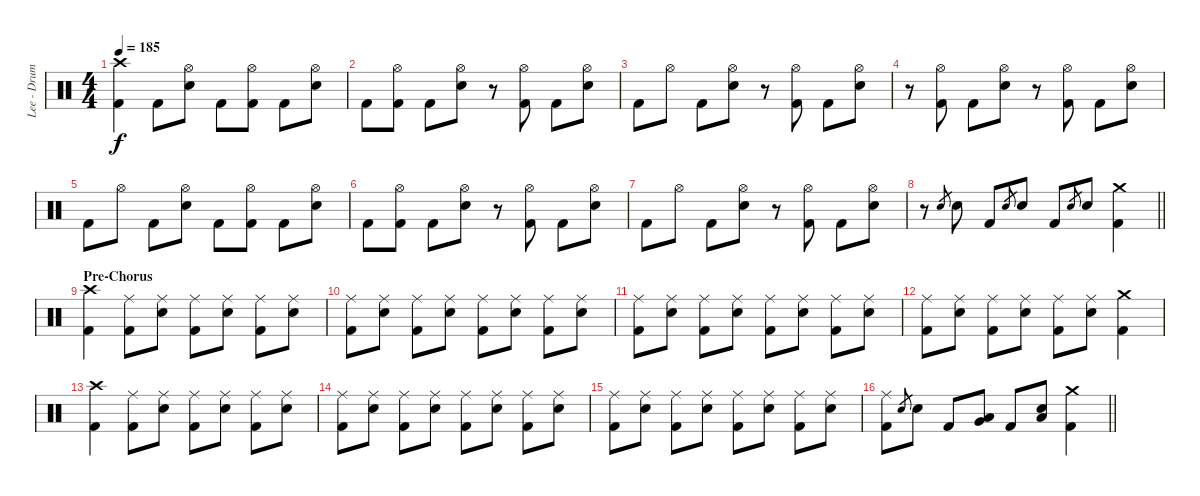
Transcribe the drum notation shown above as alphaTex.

\track ("Lee - Drums" "Lee - Drum") {instrument percussion}
\staff {score}
\articulation defaults
\ts (4 4)
\tempo 185
\clef neutral
\ks c
("Crash high (hit)" "Kick (hit) 2").4{dy f} "Kick (hit) 2".8 ("Hi-Hat (open)" "Snare (hit) 2").8 "Kick (hit) 2".8 ("Hi-Hat (open)" "Kick (hit) 2").8 "Kick (hit) 2".8 ("Hi-Hat (open)" "Snare (hit) 2").8 |
"Kick (hit) 2".8 ("Hi-Hat (open)" "Kick (hit) 2").8 "Kick (hit) 2".8 ("Hi-Hat (open)" "Snare (hit) 2").8 r.8 ("Hi-Hat (open)" "Kick (hit) 2").8 "Kick (hit) 2".8 ("Hi-Hat (open)" "Snare (hit) 2").8 |
"Kick (hit) 2".8 "Hi-Hat (open)".8 "Kick (hit) 2".8 ("Hi-Hat (open)" "Snare (hit) 2").8 r.8 ("Hi-Hat (open)" "Kick (hit) 2").8 "Kick (hit) 2".8 ("Hi-Hat (open)" "Snare (hit) 2").8 |
r.8 ("Hi-Hat (open)" "Kick (hit) 2").8 "Kick (hit) 2".8 ("Hi-Hat (open)" "Snare (hit) 2").8 r.8 ("Hi-Hat (open)" "Kick (hit) 2").8 "Kick (hit) 2".8 ("Hi-Hat (open)" "Snare (hit) 2").8 |
"Kick (hit) 2".8 "Hi-Hat (open)".8 "Kick (hit) 2".8 ("Hi-Hat (open)" "Snare (hit) 2").8 "Kick (hit) 2".8 ("Hi-Hat (open)" "Kick (hit) 2").8 "Kick (hit) 2".8 ("Hi-Hat (open)" "Snare (hit) 2").8 |
"Kick (hit) 2".8 ("Hi-Hat (open)" "Kick (hit) 2").8 "Kick (hit) 2".8 ("Hi-Hat (open)" "Snare (hit) 2").8 r.8 ("Hi-Hat (open)" "Kick (hit) 2").8 "Kick (hit) 2".8 ("Hi-Hat (open)" "Snare (hit) 2").8 |
"Kick (hit) 2".8 "Hi-Hat (open)".8 "Kick (hit) 2".8 ("Hi-Hat (open)" "Snare (hit) 2").8 r.8 ("Hi-Hat (open)" "Kick (hit) 2").8 "Kick (hit) 2".8 ("Hi-Hat (open)" "Snare (hit) 2").8 |
\barLineRight lightlight
r.8 "Snare (hit) 2".8{gr} "Snare (hit) 2".8 "Kick (hit) 2".8 "Snare (hit) 2".8{gr} "Snare (hit) 2".8 "Kick (hit) 2".8 "Snare (hit) 2".8{gr} "Snare (hit) 2".8 ("Crash medium (hit)" "Kick (hit) 2").4 |
\section ("" "Pre-Chorus")
("Crash high (hit)" "Kick (hit) 2").4 ("Ride (middle)" "Kick (hit) 2").8 ("Ride (middle)" "Snare (hit) 2").8 ("Ride (middle)" "Kick (hit) 2").8 ("Ride (middle)" "Snare (hit) 2").8 ("Ride (middle)" "Kick (hit) 2").8 ("Ride (middle)" "Snare (hit) 2").8 |
("Ride (middle)" "Kick (hit) 2").8 ("Ride (middle)" "Snare (hit) 2").8 ("Ride (middle)" "Kick (hit) 2").8 ("Ride (middle)" "Snare (hit) 2").8 ("Ride (middle)" "Kick (hit) 2").8 ("Ride (middle)" "Snare (hit) 2").8 ("Ride (middle)" "Kick (hit) 2").8 ("Ride (middle)" "Snare (hit) 2").8 |
("Ride (middle)" "Kick (hit) 2").8 ("Ride (middle)" "Snare (hit) 2").8 ("Ride (middle)" "Kick (hit) 2").8 ("Ride (middle)" "Snare (hit) 2").8 ("Ride (middle)" "Kick (hit) 2").8 ("Ride (middle)" "Snare (hit) 2").8 ("Ride (middle)" "Kick (hit) 2").8 ("Ride (middle)" "Snare (hit) 2").8 |
("Ride (middle)" "Kick (hit) 2").8 ("Ride (middle)" "Snare (hit) 2").8 ("Ride (middle)" "Kick (hit) 2").8 ("Ride (middle)" "Snare (hit) 2").8 ("Ride (middle)" "Kick (hit) 2").8 ("Ride (middle)" "Snare (hit) 2").8 ("Crash medium (hit)" "Kick (hit) 2").4 |
("Crash high (hit)" "Kick (hit) 2").4 ("Ride (middle)" "Kick (hit) 2").8 ("Ride (middle)" "Snare (hit) 2").8 ("Ride (middle)" "Kick (hit) 2").8 ("Ride (middle)" "Snare (hit) 2").8 ("Ride (middle)" "Kick (hit) 2").8 ("Ride (middle)" "Snare (hit) 2").8 |
("Ride (middle)" "Kick (hit) 2").8 ("Ride (middle)" "Snare (hit) 2").8 ("Ride (middle)" "Kick (hit) 2").8 ("Ride (middle)" "Snare (hit) 2").8 ("Ride (middle)" "Kick (hit) 2").8 ("Ride (middle)" "Snare (hit) 2").8 ("Ride (middle)" "Kick (hit) 2").8 ("Ride (middle)" "Snare (hit) 2").8 |
("Ride (middle)" "Kick (hit) 2").8 ("Ride (middle)" "Snare (hit) 2").8 ("Ride (middle)" "Kick (hit) 2").8 ("Ride (middle)" "Snare (hit) 2").8 ("Ride (middle)" "Kick (hit) 2").8 ("Ride (middle)" "Snare (hit) 2").8 ("Ride (middle)" "Kick (hit) 2").8 ("Ride (middle)" "Snare (hit) 2").8 |
\barLineRight lightlight
("Ride (middle)" "Kick (hit) 2").8 "Snare (hit) 2".8{gr} "Snare (hit) 2".8 "Kick (hit) 2".8 ("Low Tom (hit)" "Very Low Tom (hit)").8 "Kick (hit) 2".8 ("Snare (hit) 2" "Low Tom (hit)").8 ("Crash medium (hit)" "Kick (hit) 2").4
